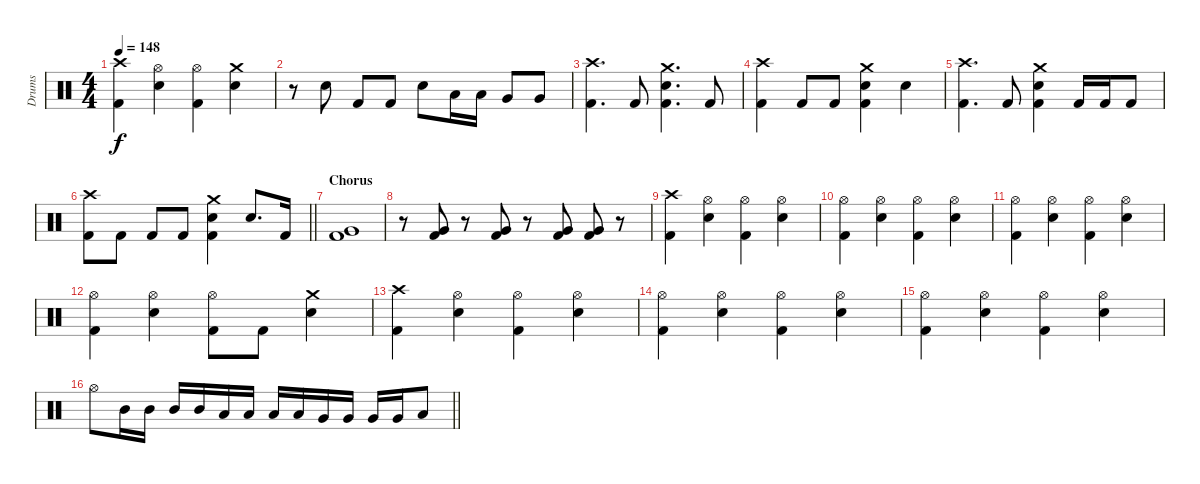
\track ("Drums" "Drums") {instrument percussion}
\staff {score}
\articulation defaults
\ts (4 4)
\tempo 148
\clef neutral
\ks c
("Crash high (hit)" "Kick (hit) 2").4{dy f} ("Hi-Hat (open)" "Snare (hit) 2").4 ("Hi-Hat (open)" "Kick (hit) 2").4 ("Crash medium (hit)" "Snare (hit) 2").4 |
r.8 "Snare (hit) 2".8 "Kick (hit) 2".8 "Kick (hit) 2".8 "Snare (hit) 2".8 "Low Tom (hit)".16 "Low Tom (hit)".16 "Very Low Tom (hit)".8 "Very Low Tom (hit)".8 |
("Crash high (hit)" "Kick (hit) 2").4{d} "Kick (hit) 2".8 ("Crash medium (hit)" "Snare (hit) 2" "Kick (hit) 2").4{d} "Kick (hit) 2".8 |
("Crash high (hit)" "Kick (hit) 2").4 "Kick (hit) 2".8 "Kick (hit) 2".8 ("Crash medium (hit)" "Snare (hit) 2" "Kick (hit) 2").4 "Snare (hit) 2".4 |
("Crash high (hit)" "Kick (hit) 2").4{d} "Kick (hit) 2".8 ("Crash medium (hit)" "Snare (hit) 2" "Kick (hit) 2").4 "Kick (hit) 2".16 "Kick (hit) 2".16 "Kick (hit) 2".8 |
\barLineRight lightlight
("Crash high (hit)" "Kick (hit) 2").8 "Kick (hit) 2".8 "Kick (hit) 2".8 "Kick (hit) 2".8 ("Crash medium (hit)" "Snare (hit) 2" "Kick (hit) 2").4 "Snare (hit) 2".8{d} "Kick (hit) 2".16 |
\section ("" "Chorus")
("Very Low Tom (hit)" "Kick (hit) 2").1 |
r.8 ("Very Low Tom (hit)" "Kick (hit) 2").8 r.8 ("Very Low Tom (hit)" "Kick (hit) 2").8 r.8 ("Very Low Tom (hit)" "Kick (hit) 2").8 ("Very Low Tom (hit)" "Kick (hit) 2").8 r.8 |
("Crash high (hit)" "Kick (hit) 2").4 ("Hi-Hat (open)" "Snare (hit) 2").4 ("Hi-Hat (open)" "Kick (hit) 2").4 ("Hi-Hat (open)" "Snare (hit) 2").4 |
("Hi-Hat (open)" "Kick (hit) 2").4 ("Hi-Hat (open)" "Snare (hit) 2").4 ("Hi-Hat (open)" "Kick (hit) 2").4 ("Hi-Hat (open)" "Snare (hit) 2").4 |
("Hi-Hat (open)" "Kick (hit) 2").4 ("Hi-Hat (open)" "Snare (hit) 2").4 ("Hi-Hat (open)" "Kick (hit) 2").4 ("Hi-Hat (open)" "Snare (hit) 2").4 |
("Hi-Hat (open)" "Kick (hit) 2").4 ("Hi-Hat (open)" "Snare (hit) 2").4 ("Hi-Hat (open)" "Kick (hit) 2").8 "Kick (hit) 2".8 ("Crash medium (hit)" "Snare (hit) 2").4 |
("Crash high (hit)" "Kick (hit) 2").4 ("Hi-Hat (open)" "Snare (hit) 2").4 ("Hi-Hat (open)" "Kick (hit) 2").4 ("Hi-Hat (open)" "Snare (hit) 2").4 |
("Hi-Hat (open)" "Kick (hit) 2").4 ("Hi-Hat (open)" "Snare (hit) 2").4 ("Hi-Hat (open)" "Kick (hit) 2").4 ("Hi-Hat (open)" "Snare (hit) 2").4 |
("Hi-Hat (open)" "Kick (hit) 2").4 ("Hi-Hat (open)" "Snare (hit) 2").4 ("Hi-Hat (open)" "Kick (hit) 2").4 ("Hi-Hat (open)" "Snare (hit) 2").4 |
\barLineRight lightlight "Hi-Hat (open)".8 "Mid Tom (hit)".16 "Mid Tom (hit)".16 "Mid Tom (hit)".16 "Mid Tom (hit)".16 "Low Tom (hit)".16 "Low Tom (hit)".16 "Low Tom (hit)".16 "Low Tom (hit)".16 "Very Low Tom (hit)".16 "Very Low Tom (hit)".16 "Very Low Tom (hit)".16 "Very Low Tom (hit)".16 "Low Floor Tom (hit)".8
